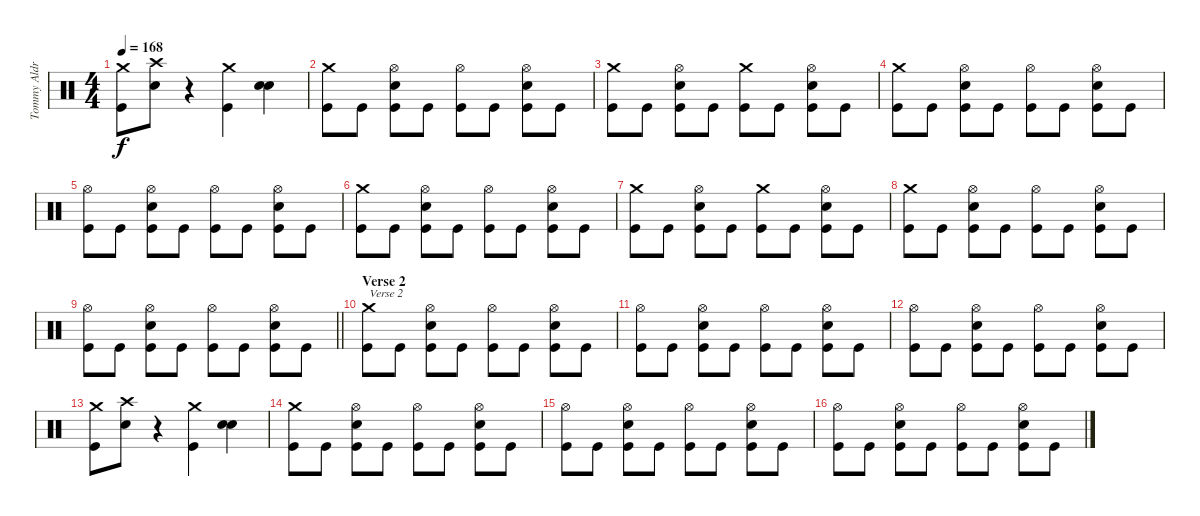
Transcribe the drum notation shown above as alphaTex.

\track ("Tommy Aldrige" "Tommy Aldr") {instrument percussion}
\staff {score}
\articulation defaults
\ts (4 4)
\tempo 168
\clef neutral
\ks c
("Crash medium (hit)" "Kick (hit)").8{dy f} ("Crash high (hit)" "Snare (hit) 2").8 r.4 ("Crash medium (hit)" "Kick (hit)").4 ("Snare (hit) 2" "Snare (hit) 2").4{bd 240} |
("Crash medium (hit)" "Kick (hit)").8 "Kick (hit)".8 ("Hi-Hat (open)" "Snare (hit) 2" "Kick (hit)").8 "Kick (hit)".8 ("Hi-Hat (open)" "Kick (hit)").8 "Kick (hit)".8 ("Hi-Hat (open)" "Snare (hit) 2" "Kick (hit)").8 "Kick (hit)".8 |
("Crash medium (hit)" "Kick (hit)").8 "Kick (hit)".8 ("Hi-Hat (open)" "Snare (hit) 2" "Kick (hit)").8 "Kick (hit)".8 ("Crash medium (hit)" "Kick (hit)").8 "Kick (hit)".8 ("Hi-Hat (open)" "Snare (hit) 2" "Kick (hit)").8 "Kick (hit)".8 |
("Crash medium (hit)" "Kick (hit)").8 "Kick (hit)".8 ("Hi-Hat (open)" "Snare (hit) 2" "Kick (hit)").8 "Kick (hit)".8 ("Hi-Hat (open)" "Kick (hit)").8 "Kick (hit)".8 ("Hi-Hat (open)" "Snare (hit) 2" "Kick (hit)").8 "Kick (hit)".8 |
("Hi-Hat (open)" "Kick (hit)").8 "Kick (hit)".8 ("Hi-Hat (open)" "Snare (hit) 2" "Kick (hit)").8 "Kick (hit)".8 ("Hi-Hat (open)" "Kick (hit)").8 "Kick (hit)".8 ("Hi-Hat (open)" "Snare (hit) 2" "Kick (hit)").8 "Kick (hit)".8 |
("Crash medium (hit)" "Kick (hit)").8 "Kick (hit)".8 ("Hi-Hat (open)" "Snare (hit) 2" "Kick (hit)").8 "Kick (hit)".8 ("Hi-Hat (open)" "Kick (hit)").8 "Kick (hit)".8 ("Hi-Hat (open)" "Snare (hit) 2" "Kick (hit)").8 "Kick (hit)".8 |
("Crash medium (hit)" "Kick (hit)").8 "Kick (hit)".8 ("Hi-Hat (open)" "Snare (hit) 2" "Kick (hit)").8 "Kick (hit)".8 ("Crash medium (hit)" "Kick (hit)").8 "Kick (hit)".8 ("Hi-Hat (open)" "Snare (hit) 2" "Kick (hit)").8 "Kick (hit)".8 |
("Crash medium (hit)" "Kick (hit)").8 "Kick (hit)".8 ("Hi-Hat (open)" "Snare (hit) 2" "Kick (hit)").8 "Kick (hit)".8 ("Hi-Hat (open)" "Kick (hit)").8 "Kick (hit)".8 ("Hi-Hat (open)" "Snare (hit) 2" "Kick (hit)").8 "Kick (hit)".8 |
\barLineRight lightlight
("Hi-Hat (open)" "Kick (hit)").8 "Kick (hit)".8 ("Hi-Hat (open)" "Snare (hit) 2" "Kick (hit)").8 "Kick (hit)".8 ("Hi-Hat (open)" "Kick (hit)").8 "Kick (hit)".8 ("Hi-Hat (open)" "Snare (hit) 2" "Kick (hit)").8 "Kick (hit)".8 |
\section ("" "Verse 2")
("Crash medium (hit)" "Kick (hit)").8{txt "Verse 2"} "Kick (hit)".8 ("Hi-Hat (open)" "Snare (hit) 2" "Kick (hit)").8 "Kick (hit)".8 ("Hi-Hat (open)" "Kick (hit)").8 "Kick (hit)".8 ("Hi-Hat (open)" "Snare (hit) 2" "Kick (hit)").8 "Kick (hit)".8 |
("Hi-Hat (open)" "Kick (hit)").8 "Kick (hit)".8 ("Hi-Hat (open)" "Snare (hit) 2" "Kick (hit)").8 "Kick (hit)".8 ("Hi-Hat (open)" "Kick (hit)").8 "Kick (hit)".8 ("Hi-Hat (open)" "Snare (hit) 2" "Kick (hit)").8 "Kick (hit)".8 |
("Hi-Hat (open)" "Kick (hit)").8 "Kick (hit)".8 ("Hi-Hat (open)" "Snare (hit) 2" "Kick (hit)").8 "Kick (hit)".8 ("Hi-Hat (open)" "Kick (hit)").8 "Kick (hit)".8 ("Hi-Hat (open)" "Snare (hit) 2" "Kick (hit)").8 "Kick (hit)".8 |
("Crash medium (hit)" "Kick (hit)").8 ("Crash high (hit)" "Snare (hit) 2").8 r.4 ("Crash medium (hit)" "Kick (hit)").4 ("Snare (hit) 2" "Snare (hit) 2").4{bd 240} |
("Crash medium (hit)" "Kick (hit)").8 "Kick (hit)".8 ("Hi-Hat (open)" "Snare (hit) 2" "Kick (hit)").8 "Kick (hit)".8 ("Hi-Hat (open)" "Kick (hit)").8 "Kick (hit)".8 ("Hi-Hat (open)" "Snare (hit) 2" "Kick (hit)").8 "Kick (hit)".8 |
("Hi-Hat (open)" "Kick (hit)").8 "Kick (hit)".8 ("Hi-Hat (open)" "Snare (hit) 2" "Kick (hit)").8 "Kick (hit)".8 ("Hi-Hat (open)" "Kick (hit)").8 "Kick (hit)".8 ("Hi-Hat (open)" "Snare (hit) 2" "Kick (hit)").8 "Kick (hit)".8 |
("Hi-Hat (open)" "Kick (hit)").8 "Kick (hit)".8 ("Hi-Hat (open)" "Snare (hit) 2" "Kick (hit)").8 "Kick (hit)".8 ("Hi-Hat (open)" "Kick (hit)").8 "Kick (hit)".8 ("Hi-Hat (open)" "Snare (hit) 2" "Kick (hit)").8 "Kick (hit)".8
